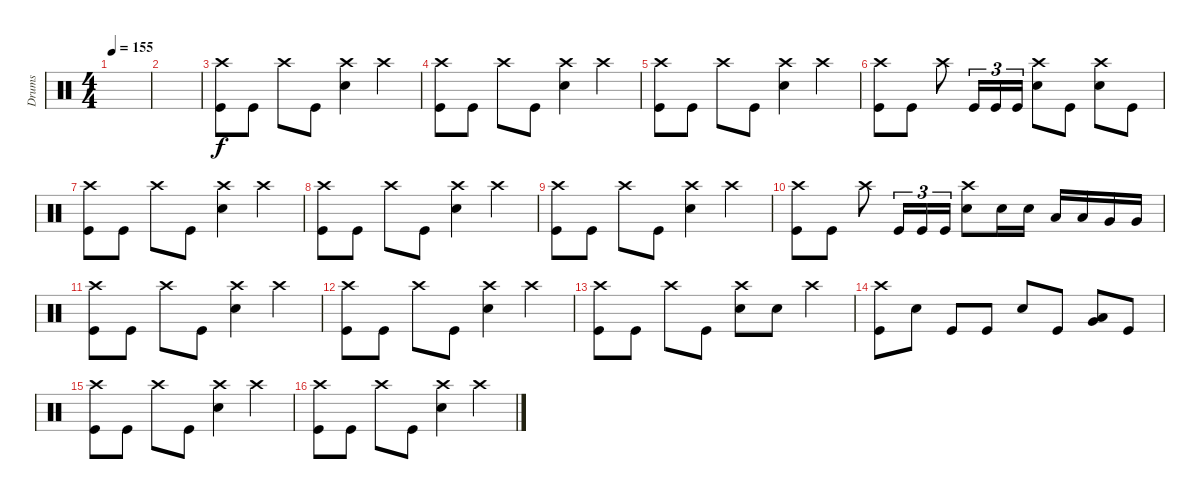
\track ("Drums" "Drums") {instrument percussion}
\staff {score}
\articulation defaults
\ts (4 4)
\tempo 155
\clef neutral
\ks c
|
|
("Crash high (hit)" "Kick (hit)").8 "Kick (hit)".8 "Crash high (hit)".8 "Kick (hit)".8 ("Crash high (hit)" "Snare (hit) 2").4 "Crash high (hit)".4 |
("Crash high (hit)" "Kick (hit)").8 "Kick (hit)".8 "Crash high (hit)".8 "Kick (hit)".8 ("Crash high (hit)" "Snare (hit) 2").4 "Crash high (hit)".4 |
("Crash high (hit)" "Kick (hit)").8 "Kick (hit)".8 "Crash high (hit)".8 "Kick (hit)".8 ("Crash high (hit)" "Snare (hit) 2").4 "Crash high (hit)".4 |
("Crash high (hit)" "Kick (hit)").8 "Kick (hit)".8 "Crash high (hit)".8 "Kick (hit)".16{tu (3 2)} "Kick (hit)".16{tu (3 2)} "Kick (hit)".16{tu (3 2)} ("Crash high (hit)" "Snare (hit) 2").8 "Kick (hit)".8 ("Crash high (hit)" "Snare (hit) 2").8 "Kick (hit)".8 |
("Crash high (hit)" "Kick (hit)").8 "Kick (hit)".8 "Crash high (hit)".8 "Kick (hit)".8 ("Crash high (hit)" "Snare (hit) 2").4 "Crash high (hit)".4 |
("Crash high (hit)" "Kick (hit)").8 "Kick (hit)".8 "Crash high (hit)".8 "Kick (hit)".8 ("Crash high (hit)" "Snare (hit) 2").4 "Crash high (hit)".4 |
("Crash high (hit)" "Kick (hit)").8 "Kick (hit)".8 "Crash high (hit)".8 "Kick (hit)".8 ("Crash high (hit)" "Snare (hit) 2").4 "Crash high (hit)".4 |
("Crash high (hit)" "Kick (hit)").8 "Kick (hit)".8 "Crash high (hit)".8 "Kick (hit)".16{tu (3 2)} "Kick (hit)".16{tu (3 2)} "Kick (hit)".16{tu (3 2)} ("Crash high (hit)" "Snare (hit) 2").8 "Snare (hit) 2".16 "Snare (hit) 2".16 "Low Tom (hit)".16 "Low Tom (hit)".16 "Very Low Tom (hit)".16 "Very Low Tom (hit)".16 |
("Crash high (hit)" "Kick (hit)").8 "Kick (hit)".8 "Crash high (hit)".8 "Kick (hit)".8 ("Crash high (hit)" "Snare (hit) 2").4 "Crash high (hit)".4 |
("Crash high (hit)" "Kick (hit)").8 "Kick (hit)".8 "Crash high (hit)".8 "Kick (hit)".8 ("Crash high (hit)" "Snare (hit) 2").4 "Crash high (hit)".4 |
("Crash high (hit)" "Kick (hit)").8 "Kick (hit)".8 "Crash high (hit)".8 "Kick (hit)".8 ("Crash high (hit)" "Snare (hit) 2").8 "Snare (hit) 2".8 "Crash high (hit)".4 |
("Crash high (hit)" "Kick (hit)").8 "Snare (hit) 2".8 "Kick (hit)".8 "Kick (hit)".8 "Snare (hit) 2".8 "Kick (hit)".8 ("Very Low Tom (hit)" "Low Tom (hit)").8 "Kick (hit)".8 |
("Crash high (hit)" "Kick (hit)").8 "Kick (hit)".8 "Crash high (hit)".8 "Kick (hit)".8 ("Crash high (hit)" "Snare (hit) 2").4 "Crash high (hit)".4 |
("Crash high (hit)" "Kick (hit)").8 "Kick (hit)".8 "Crash high (hit)".8 "Kick (hit)".8 ("Crash high (hit)" "Snare (hit) 2").4 "Crash high (hit)".4
